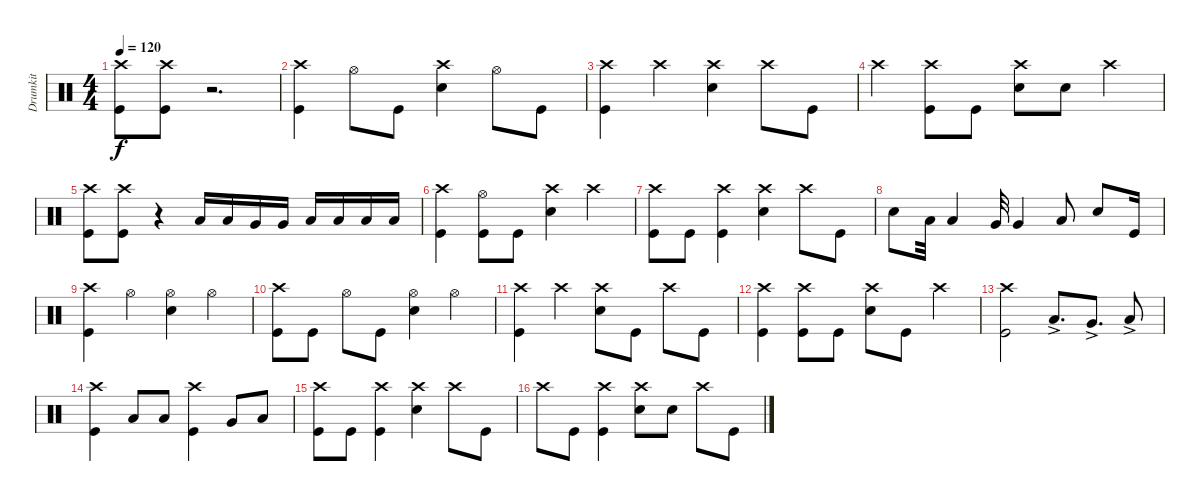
\track ("Drumkit" "Drumkit") {instrument percussion}
\staff {score}
\articulation defaults
\ts (4 4)
\section ("" "")
\tempo 120
\clef neutral
\ks c
("Crash high (hit)" "Kick (hit)").8{dy f} ("Crash high (hit)" "Kick (hit)").8 r.2{d} |
("Crash high (hit)" "Kick (hit)").4 "Hi-Hat (open)".8 "Kick (hit)".8 ("Crash high (hit)" "Snare (hit) 2").4 "Hi-Hat (open)".8 "Kick (hit)".8 |
("Crash high (hit)" "Kick (hit)").4 "Crash high (hit)".4 ("Crash high (hit)" "Snare (hit) 2").4 "Crash high (hit)".8 "Kick (hit)".8 |
"Crash high (hit)".4 ("Crash high (hit)" "Kick (hit)").8 "Kick (hit)".8 ("Crash high (hit)" "Snare (hit) 2").8 "Snare (hit) 2".8 "Crash high (hit)".4 |
("Crash high (hit)" "Kick (hit)").8 ("Crash high (hit)" "Kick (hit)").8 r.4 "Low Tom (hit)".16 "Low Tom (hit)".16 "Very Low Tom (hit)".16 "Very Low Tom (hit)".16 "Low Floor Tom (hit)".16 "Low Floor Tom (hit)".16 "Low Floor Tom (hit)".16 "Low Floor Tom (hit)".16 |
("Crash high (hit)" "Kick (hit)").4 ("Hi-Hat (open)" "Kick (hit)").8 "Kick (hit)".8 ("Crash high (hit)" "Snare (hit) 2").4 "Crash high (hit)".4 |
("Crash high (hit)" "Kick (hit)").8 "Kick (hit)".8 ("Crash high (hit)" "Kick (hit)").4 ("Crash high (hit)" "Snare (hit) 2").4 "Crash high (hit)".8 "Kick (hit)".8 |
"Snare (hit) 2".8 "Low Tom (hit)".32 "Low Tom (hit)".4 "Very Low Tom (hit)".32 "Very Low Tom (hit)".4 "Low Floor Tom (hit)".8 "Snare (hit) 2".8 "Kick (hit)".16 |
("Crash high (hit)" "Kick (hit)").4 "Hi-Hat (open)".4 ("Hi-Hat (open)" "Snare (hit) 2").4 "Hi-Hat (open)".4 |
("Crash high (hit)" "Kick (hit)").8 "Kick (hit)".8 "Hi-Hat (open)".8 "Kick (hit)".8 ("Hi-Hat (open)" "Snare (hit) 2").4 "Hi-Hat (open)".4 |
("Crash high (hit)" "Kick (hit)").4 "Crash high (hit)".4 ("Crash high (hit)" "Snare (hit) 2").8 "Kick (hit)".8 "Crash high (hit)".8 "Kick (hit)".8 |
("Crash high (hit)" "Kick (hit)").4 ("Crash high (hit)" "Kick (hit)").8 "Kick (hit)".8 ("Crash high (hit)" "Snare (hit) 2").8 "Kick (hit)".8 "Crash high (hit)".4 |
("Crash high (hit)" "Kick (hit)").2 "Low Tom (hit)"{ac}.8{d} "Very Low Tom (hit)"{ac}.8{d} "Low Floor Tom (hit)"{ac}.8 |
("Crash high (hit)" "Kick (hit)").4 "Low Tom (hit)".8 "Low Floor Tom (hit)".8 ("Crash high (hit)" "Kick (hit)").4 "Very Low Tom (hit)".8 "Low Floor Tom (hit)".8 |
("Crash high (hit)" "Kick (hit)").8 "Kick (hit)".8 ("Crash high (hit)" "Kick (hit)").4 ("Crash high (hit)" "Snare (hit) 2").4 "Crash high (hit)".8 "Kick (hit)".8 |
"Crash high (hit)".8 "Kick (hit)".8 ("Crash high (hit)" "Kick (hit)").4 ("Crash high (hit)" "Snare (hit) 2").8 "Snare (hit) 2".8 "Crash high (hit)".8 "Kick (hit)".8
